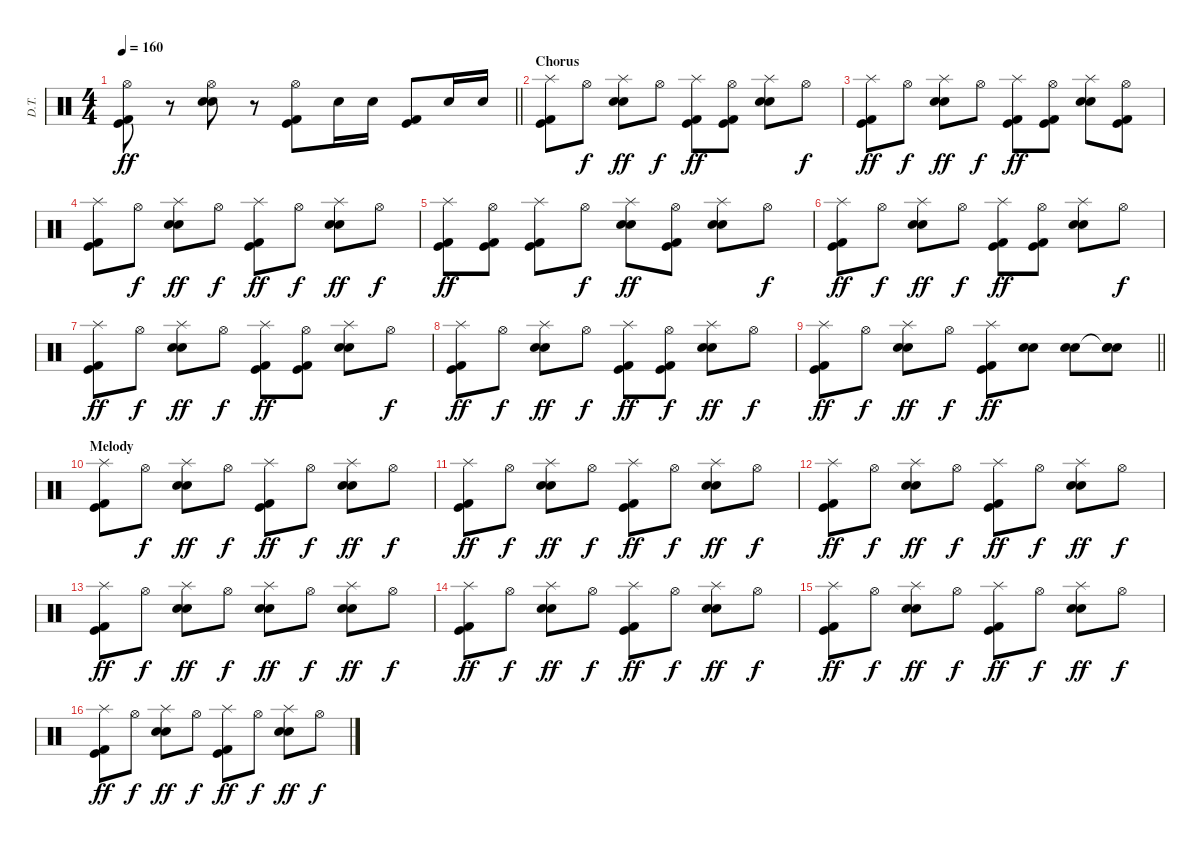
\track ("D.T." "D.T.") {instrument percussion}
\staff {score}
\articulation defaults
\ts (4 4)
\tempo 160
\clef neutral
\barLineRight lightlight
\ks c
("Hi-Hat (open)" "Kick (hit)" "Kick (hit) 2").8{dy ff} r.8 ("Hi-Hat (open)" "Snare (hit) 2" "Electric Snare (hit)").8 r.8 ("Hi-Hat (open)" "Kick (hit)" "Kick (hit) 2").8 "Electric Snare (hit)".16 "Electric Snare (hit)".16 ("Kick (hit)" "Kick (hit) 2").8 "Electric Snare (hit)".16 "Electric Snare (hit)".16 |
\section ("" "Chorus")
("Splash (hit)" "Kick (hit)" "Kick (hit) 2").8 "Hi-Hat (open)".8{dy f} ("Splash (hit)" "Snare (hit) 2" "Electric Snare (hit)").8{dy ff} "Hi-Hat (open)".8{dy f} ("Splash (hit)" "Kick (hit)" "Kick (hit) 2").8{dy ff} ("Hi-Hat (open)" "Kick (hit)" "Kick (hit) 2").8 ("Splash (hit)" "Snare (hit) 2" "Electric Snare (hit)").8 "Hi-Hat (open)".8{dy f} |
("Splash (hit)" "Kick (hit)" "Kick (hit) 2").8{dy ff} "Hi-Hat (open)".8{dy f} ("Splash (hit)" "Snare (hit) 2" "Electric Snare (hit)").8{dy ff} "Hi-Hat (open)".8{dy f} ("Splash (hit)" "Kick (hit)" "Kick (hit) 2").8{dy ff} ("Hi-Hat (open)" "Kick (hit)" "Kick (hit) 2").8 ("Splash (hit)" "Snare (hit) 2" "Electric Snare (hit)").8 ("Hi-Hat (open)" "Kick (hit)" "Kick (hit) 2").8 |
("Splash (hit)" "Kick (hit)" "Kick (hit) 2").8 "Hi-Hat (open)".8{dy f} ("Splash (hit)" "Snare (hit) 2" "Electric Snare (hit)").8{dy ff} "Hi-Hat (open)".8{dy f} ("Splash (hit)" "Kick (hit)" "Kick (hit) 2").8{dy ff} "Hi-Hat (open)".8{dy f} ("Splash (hit)" "Snare (hit) 2" "Electric Snare (hit)").8{dy ff} "Hi-Hat (open)".8{dy f} |
("Splash (hit)" "Kick (hit)" "Kick (hit) 2").8{dy ff} ("Hi-Hat (open)" "Kick (hit)" "Kick (hit) 2").8 ("Splash (hit)" "Kick (hit)" "Kick (hit) 2").8 "Hi-Hat (open)".8{dy f} ("Splash (hit)" "Snare (hit) 2" "Electric Snare (hit)").8{dy ff} ("Hi-Hat (open)" "Kick (hit)" "Kick (hit) 2").8 ("Splash (hit)" "Snare (hit) 2" "Electric Snare (hit)").8 "Hi-Hat (open)".8{dy f} |
("Splash (hit)" "Kick (hit)" "Kick (hit) 2").8{dy ff} "Hi-Hat (open)".8{dy f} ("Splash (hit)" "Snare (hit) 2" "Electric Snare (hit)").8{dy ff} "Hi-Hat (open)".8{dy f} ("Splash (hit)" "Kick (hit)" "Kick (hit) 2").8{dy ff} ("Hi-Hat (open)" "Kick (hit)" "Kick (hit) 2").8 ("Splash (hit)" "Snare (hit) 2" "Electric Snare (hit)").8 "Hi-Hat (open)".8{dy f} |
("Splash (hit)" "Kick (hit)" "Kick (hit) 2").8{dy ff} "Hi-Hat (open)".8{dy f} ("Splash (hit)" "Snare (hit) 2" "Electric Snare (hit)").8{dy ff} "Hi-Hat (open)".8{dy f} ("Splash (hit)" "Kick (hit)" "Kick (hit) 2").8{dy ff} ("Hi-Hat (open)" "Kick (hit)" "Kick (hit) 2").8 ("Splash (hit)" "Snare (hit) 2" "Electric Snare (hit)").8 "Hi-Hat (open)".8{dy f} |
("Splash (hit)" "Kick (hit)" "Kick (hit) 2").8{dy ff} "Hi-Hat (open)".8{dy f} ("Splash (hit)" "Snare (hit) 2" "Electric Snare (hit)").8{dy ff} "Hi-Hat (open)".8{dy f} ("Splash (hit)" "Kick (hit)" "Kick (hit) 2").8{dy ff} ("Hi-Hat (open)" "Kick (hit)" "Kick (hit) 2").8{dy f} ("Splash (hit)" "Snare (hit) 2" "Electric Snare (hit)").8{dy ff} "Hi-Hat (open)".8{dy f} |
\barLineRight lightlight
("Splash (hit)" "Kick (hit)" "Kick (hit) 2").8{dy ff} "Hi-Hat (open)".8{dy f} ("Splash (hit)" "Snare (hit) 2" "Electric Snare (hit)").8{dy ff} "Hi-Hat (open)".8{dy f} ("Splash (hit)" "Kick (hit)" "Kick (hit) 2").8{dy ff} ("Snare (hit) 2" "Electric Snare (hit)").8 ("Snare (hit) 2" "Electric Snare (hit)").8 ("Snare (hit)"{t} "Snare (hit) 2" "Electric Snare (hit)").8 |
\section ("" "Melody")
("Splash (hit)" "Kick (hit)" "Kick (hit) 2").8 "Hi-Hat (open)".8{dy f} ("Splash (hit)" "Snare (hit) 2" "Electric Snare (hit)").8{dy ff} "Hi-Hat (open)".8{dy f} ("Splash (hit)" "Kick (hit)" "Kick (hit) 2").8{dy ff} "Hi-Hat (open)".8{dy f} ("Splash (hit)" "Snare (hit) 2" "Electric Snare (hit)").8{dy ff} "Hi-Hat (open)".8{dy f} |
("Splash (hit)" "Kick (hit)" "Kick (hit) 2").8{dy ff} "Hi-Hat (open)".8{dy f} ("Splash (hit)" "Snare (hit) 2" "Electric Snare (hit)").8{dy ff} "Hi-Hat (open)".8{dy f} ("Splash (hit)" "Kick (hit)" "Kick (hit) 2").8{dy ff} "Hi-Hat (open)".8{dy f} ("Splash (hit)" "Snare (hit) 2" "Electric Snare (hit)").8{dy ff} "Hi-Hat (open)".8{dy f} |
("Splash (hit)" "Kick (hit)" "Kick (hit) 2").8{dy ff} "Hi-Hat (open)".8{dy f} ("Splash (hit)" "Snare (hit) 2" "Electric Snare (hit)").8{dy ff} "Hi-Hat (open)".8{dy f} ("Splash (hit)" "Kick (hit)" "Kick (hit) 2").8{dy ff} "Hi-Hat (open)".8{dy f} ("Splash (hit)" "Snare (hit) 2" "Electric Snare (hit)").8{dy ff} "Hi-Hat (open)".8{dy f} |
("Splash (hit)" "Kick (hit)" "Kick (hit) 2").8{dy ff} "Hi-Hat (open)".8{dy f} ("Splash (hit)" "Snare (hit) 2" "Electric Snare (hit)").8{dy ff} "Hi-Hat (open)".8{dy f} ("Splash (hit)" "Snare (hit) 2" "Electric Snare (hit)").8{dy ff} "Hi-Hat (open)".8{dy f} ("Splash (hit)" "Snare (hit) 2" "Electric Snare (hit)").8{dy ff} "Hi-Hat (open)".8{dy f} |
("Splash (hit)" "Kick (hit)" "Kick (hit) 2").8{dy ff} "Hi-Hat (open)".8{dy f} ("Splash (hit)" "Snare (hit) 2" "Electric Snare (hit)").8{dy ff} "Hi-Hat (open)".8{dy f} ("Splash (hit)" "Kick (hit)" "Kick (hit) 2").8{dy ff} "Hi-Hat (open)".8{dy f} ("Splash (hit)" "Snare (hit) 2" "Electric Snare (hit)").8{dy ff} "Hi-Hat (open)".8{dy f} |
("Splash (hit)" "Kick (hit)" "Kick (hit) 2").8{dy ff} "Hi-Hat (open)".8{dy f} ("Splash (hit)" "Snare (hit) 2" "Electric Snare (hit)").8{dy ff} "Hi-Hat (open)".8{dy f} ("Splash (hit)" "Kick (hit)" "Kick (hit) 2").8{dy ff} "Hi-Hat (open)".8{dy f} ("Splash (hit)" "Snare (hit) 2" "Electric Snare (hit)").8{dy ff} "Hi-Hat (open)".8{dy f} |
("Splash (hit)" "Kick (hit)" "Kick (hit) 2").8{dy ff} "Hi-Hat (open)".8{dy f} ("Splash (hit)" "Snare (hit) 2" "Electric Snare (hit)").8{dy ff} "Hi-Hat (open)".8{dy f} ("Splash (hit)" "Kick (hit)" "Kick (hit) 2").8{dy ff} "Hi-Hat (open)".8{dy f} ("Splash (hit)" "Snare (hit) 2" "Electric Snare (hit)").8{dy ff} "Hi-Hat (open)".8{dy f}
